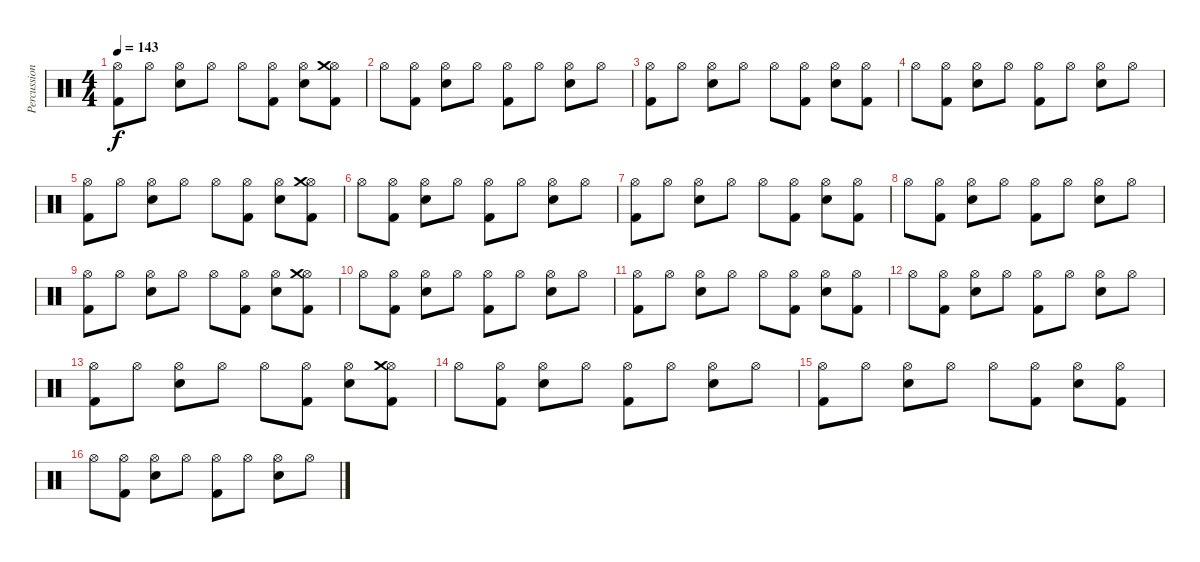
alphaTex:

\track ("Percussion" "Percussion") {instrument percussion}
\staff {score}
\articulation defaults
\ts (4 4)
\tempo 143
\clef neutral
\ks c
("Hi-Hat (open)" "Kick (hit) 2").8{dy f} "Hi-Hat (open)".8 ("Hi-Hat (open)" "Snare (hit) 2").8 "Hi-Hat (open)".8 "Hi-Hat (open)".8 ("Hi-Hat (open)" "Kick (hit) 2").8 ("Hi-Hat (open)" "Snare (hit) 2").8 ("Hi-Hat (open)" "Crash medium (hit)" "Kick (hit) 2").8 |
"Hi-Hat (open)".8 ("Hi-Hat (open)" "Kick (hit) 2").8 ("Hi-Hat (open)" "Snare (hit) 2").8 "Hi-Hat (open)".8 ("Hi-Hat (open)" "Kick (hit) 2").8 "Hi-Hat (open)".8 ("Hi-Hat (open)" "Snare (hit) 2").8 "Hi-Hat (open)".8 |
("Hi-Hat (open)" "Kick (hit) 2").8 "Hi-Hat (open)".8 ("Hi-Hat (open)" "Snare (hit) 2").8 "Hi-Hat (open)".8 "Hi-Hat (open)".8 ("Hi-Hat (open)" "Kick (hit) 2").8 ("Hi-Hat (open)" "Snare (hit) 2").8 ("Hi-Hat (open)" "Kick (hit) 2").8 |
"Hi-Hat (open)".8 ("Hi-Hat (open)" "Kick (hit) 2").8 ("Hi-Hat (open)" "Snare (hit) 2").8 "Hi-Hat (open)".8 ("Hi-Hat (open)" "Kick (hit) 2").8 "Hi-Hat (open)".8 ("Hi-Hat (open)" "Snare (hit) 2").8 "Hi-Hat (open)".8 |
("Hi-Hat (open)" "Kick (hit) 2").8 "Hi-Hat (open)".8 ("Hi-Hat (open)" "Snare (hit) 2").8 "Hi-Hat (open)".8 "Hi-Hat (open)".8 ("Hi-Hat (open)" "Kick (hit) 2").8 ("Hi-Hat (open)" "Snare (hit) 2").8 ("Hi-Hat (open)" "Crash medium (hit)" "Kick (hit) 2").8 |
"Hi-Hat (open)".8 ("Hi-Hat (open)" "Kick (hit) 2").8 ("Hi-Hat (open)" "Snare (hit) 2").8 "Hi-Hat (open)".8 ("Hi-Hat (open)" "Kick (hit) 2").8 "Hi-Hat (open)".8 ("Hi-Hat (open)" "Snare (hit) 2").8 "Hi-Hat (open)".8 |
("Hi-Hat (open)" "Kick (hit) 2").8 "Hi-Hat (open)".8 ("Hi-Hat (open)" "Snare (hit) 2").8 "Hi-Hat (open)".8 "Hi-Hat (open)".8 ("Hi-Hat (open)" "Kick (hit) 2").8 ("Hi-Hat (open)" "Snare (hit) 2").8 ("Hi-Hat (open)" "Kick (hit) 2").8 |
"Hi-Hat (open)".8 ("Hi-Hat (open)" "Kick (hit) 2").8 ("Hi-Hat (open)" "Snare (hit) 2").8 "Hi-Hat (open)".8 ("Hi-Hat (open)" "Kick (hit) 2").8 "Hi-Hat (open)".8 ("Hi-Hat (open)" "Snare (hit) 2").8 "Hi-Hat (open)".8 |
("Hi-Hat (open)" "Kick (hit) 2").8 "Hi-Hat (open)".8 ("Hi-Hat (open)" "Snare (hit) 2").8 "Hi-Hat (open)".8 "Hi-Hat (open)".8 ("Hi-Hat (open)" "Kick (hit) 2").8 ("Hi-Hat (open)" "Snare (hit) 2").8 ("Hi-Hat (open)" "Crash medium (hit)" "Kick (hit) 2").8 |
"Hi-Hat (open)".8 ("Hi-Hat (open)" "Kick (hit) 2").8 ("Hi-Hat (open)" "Snare (hit) 2").8 "Hi-Hat (open)".8 ("Hi-Hat (open)" "Kick (hit) 2").8 "Hi-Hat (open)".8 ("Hi-Hat (open)" "Snare (hit) 2").8 "Hi-Hat (open)".8 |
("Hi-Hat (open)" "Kick (hit) 2").8 "Hi-Hat (open)".8 ("Hi-Hat (open)" "Snare (hit) 2").8 "Hi-Hat (open)".8 "Hi-Hat (open)".8 ("Hi-Hat (open)" "Kick (hit) 2").8 ("Hi-Hat (open)" "Snare (hit) 2").8 ("Hi-Hat (open)" "Kick (hit) 2").8 |
"Hi-Hat (open)".8 ("Hi-Hat (open)" "Kick (hit) 2").8 ("Hi-Hat (open)" "Snare (hit) 2").8 "Hi-Hat (open)".8 ("Hi-Hat (open)" "Kick (hit) 2").8 "Hi-Hat (open)".8 ("Hi-Hat (open)" "Snare (hit) 2").8 "Hi-Hat (open)".8 |
("Hi-Hat (open)" "Kick (hit) 2").8 "Hi-Hat (open)".8 ("Hi-Hat (open)" "Snare (hit) 2").8 "Hi-Hat (open)".8 "Hi-Hat (open)".8 ("Hi-Hat (open)" "Kick (hit) 2").8 ("Hi-Hat (open)" "Snare (hit) 2").8 ("Hi-Hat (open)" "Crash medium (hit)" "Kick (hit) 2").8 |
"Hi-Hat (open)".8 ("Hi-Hat (open)" "Kick (hit) 2").8 ("Hi-Hat (open)" "Snare (hit) 2").8 "Hi-Hat (open)".8 ("Hi-Hat (open)" "Kick (hit) 2").8 "Hi-Hat (open)".8 ("Hi-Hat (open)" "Snare (hit) 2").8 "Hi-Hat (open)".8 |
("Hi-Hat (open)" "Kick (hit) 2").8 "Hi-Hat (open)".8 ("Hi-Hat (open)" "Snare (hit) 2").8 "Hi-Hat (open)".8 "Hi-Hat (open)".8 ("Hi-Hat (open)" "Kick (hit) 2").8 ("Hi-Hat (open)" "Snare (hit) 2").8 ("Hi-Hat (open)" "Kick (hit) 2").8 |
"Hi-Hat (open)".8 ("Hi-Hat (open)" "Kick (hit) 2").8 ("Hi-Hat (open)" "Snare (hit) 2").8 "Hi-Hat (open)".8 ("Hi-Hat (open)" "Kick (hit) 2").8 "Hi-Hat (open)".8 ("Hi-Hat (open)" "Snare (hit) 2").8 "Hi-Hat (open)".8
